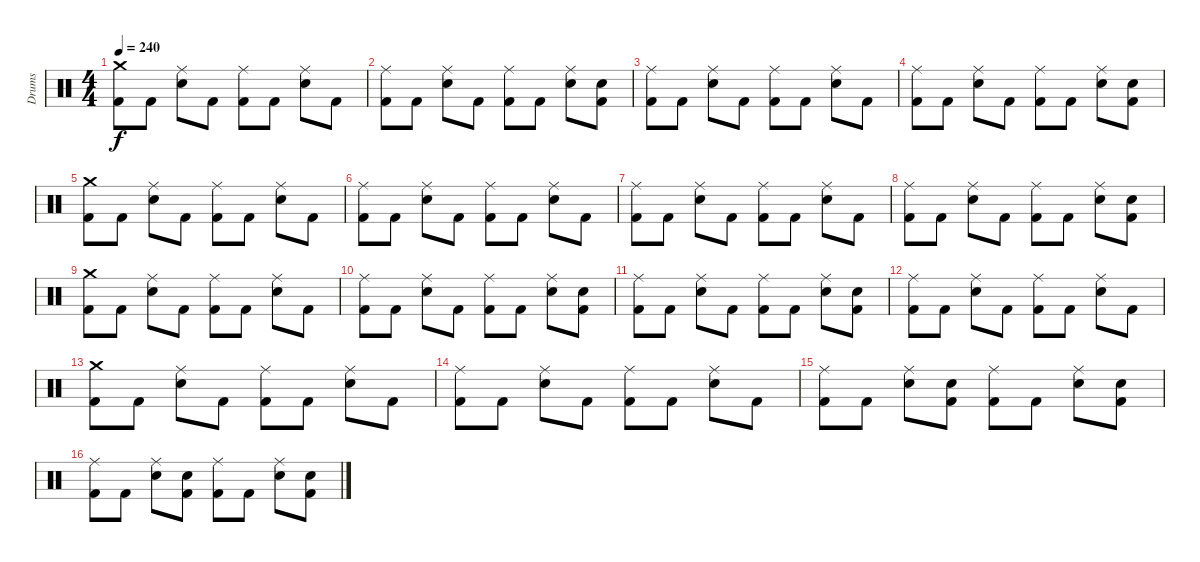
\track ("Drums" "Drums") {instrument percussion}
\staff {score}
\articulation defaults
\ts (4 4)
\tempo 240
\clef neutral
\ks c
("Crash medium (hit)" "Kick (hit) 2").8{dy f} "Kick (hit) 2".8 ("Ride (middle)" "Snare (hit) 2").8 "Kick (hit) 2".8 ("Ride (middle)" "Kick (hit) 2").8 "Kick (hit) 2".8 ("Ride (middle)" "Snare (hit) 2").8 "Kick (hit) 2".8 |
("Ride (middle)" "Kick (hit) 2").8 "Kick (hit) 2".8 ("Ride (middle)" "Snare (hit) 2").8 "Kick (hit) 2".8 ("Ride (middle)" "Kick (hit) 2").8 "Kick (hit) 2".8 ("Ride (middle)" "Snare (hit) 2").8 ("Snare (hit) 2" "Kick (hit) 2").8 |
("Ride (middle)" "Kick (hit) 2").8 "Kick (hit) 2".8 ("Ride (middle)" "Snare (hit) 2").8 "Kick (hit) 2".8 ("Ride (middle)" "Kick (hit) 2").8 "Kick (hit) 2".8 ("Ride (middle)" "Snare (hit) 2").8 "Kick (hit) 2".8 |
("Ride (middle)" "Kick (hit) 2").8 "Kick (hit) 2".8 ("Ride (middle)" "Snare (hit) 2").8 "Kick (hit) 2".8 ("Ride (middle)" "Kick (hit) 2").8 "Kick (hit) 2".8 ("Ride (middle)" "Snare (hit) 2").8 ("Snare (hit) 2" "Kick (hit) 2").8 |
("Crash medium (hit)" "Kick (hit) 2").8 "Kick (hit) 2".8 ("Ride (middle)" "Snare (hit) 2").8 "Kick (hit) 2".8 ("Ride (middle)" "Kick (hit) 2").8 "Kick (hit) 2".8 ("Ride (middle)" "Snare (hit) 2").8 "Kick (hit) 2".8 |
("Ride (middle)" "Kick (hit) 2").8 "Kick (hit) 2".8 ("Ride (middle)" "Snare (hit) 2").8 "Kick (hit) 2".8 ("Ride (middle)" "Kick (hit) 2").8 "Kick (hit) 2".8 ("Ride (middle)" "Snare (hit) 2").8 "Kick (hit) 2".8 |
("Ride (middle)" "Kick (hit) 2").8 "Kick (hit) 2".8 ("Ride (middle)" "Snare (hit) 2").8 "Kick (hit) 2".8 ("Ride (middle)" "Kick (hit) 2").8 "Kick (hit) 2".8 ("Ride (middle)" "Snare (hit) 2").8 "Kick (hit) 2".8 |
("Ride (middle)" "Kick (hit) 2").8 "Kick (hit) 2".8 ("Ride (middle)" "Snare (hit) 2").8 "Kick (hit) 2".8 ("Ride (middle)" "Kick (hit) 2").8 "Kick (hit) 2".8 ("Ride (middle)" "Snare (hit) 2").8 ("Snare (hit) 2" "Kick (hit) 2").8 |
("Crash medium (hit)" "Kick (hit) 2").8 "Kick (hit) 2".8 ("Ride (middle)" "Snare (hit) 2").8 "Kick (hit) 2".8 ("Ride (middle)" "Kick (hit) 2").8 "Kick (hit) 2".8 ("Ride (middle)" "Snare (hit) 2").8 "Kick (hit) 2".8 |
("Ride (middle)" "Kick (hit) 2").8 "Kick (hit) 2".8 ("Ride (middle)" "Snare (hit) 2").8 "Kick (hit) 2".8 ("Ride (middle)" "Kick (hit) 2").8 "Kick (hit) 2".8 ("Ride (middle)" "Snare (hit) 2").8 ("Snare (hit) 2" "Kick (hit) 2").8 |
("Ride (middle)" "Kick (hit) 2").8 "Kick (hit) 2".8 ("Ride (middle)" "Snare (hit) 2").8 "Kick (hit) 2".8 ("Ride (middle)" "Kick (hit) 2").8 "Kick (hit) 2".8 ("Ride (middle)" "Snare (hit) 2").8 ("Snare (hit) 2" "Kick (hit) 2").8 |
("Ride (middle)" "Kick (hit) 2").8 "Kick (hit) 2".8 ("Ride (middle)" "Snare (hit) 2").8 "Kick (hit) 2".8 ("Ride (middle)" "Kick (hit) 2").8 "Kick (hit) 2".8 ("Ride (middle)" "Snare (hit) 2").8 "Kick (hit) 2".8 |
("Crash medium (hit)" "Kick (hit) 2").8 "Kick (hit) 2".8 ("Ride (middle)" "Snare (hit) 2").8 "Kick (hit) 2".8 ("Ride (middle)" "Kick (hit) 2").8 "Kick (hit) 2".8 ("Ride (middle)" "Snare (hit) 2").8 "Kick (hit) 2".8 |
("Ride (middle)" "Kick (hit) 2").8 "Kick (hit) 2".8 ("Ride (middle)" "Snare (hit) 2").8 "Kick (hit) 2".8 ("Ride (middle)" "Kick (hit) 2").8 "Kick (hit) 2".8 ("Ride (middle)" "Snare (hit) 2").8 "Kick (hit) 2".8 |
("Ride (middle)" "Kick (hit) 2").8 "Kick (hit) 2".8 ("Ride (middle)" "Snare (hit) 2").8 ("Snare (hit) 2" "Kick (hit) 2").8 ("Ride (middle)" "Kick (hit) 2").8 "Kick (hit) 2".8 ("Ride (middle)" "Snare (hit) 2").8 ("Snare (hit) 2" "Kick (hit) 2").8 |
("Ride (middle)" "Kick (hit) 2").8 "Kick (hit) 2".8 ("Ride (middle)" "Snare (hit) 2").8 ("Snare (hit) 2" "Kick (hit) 2").8 ("Ride (middle)" "Kick (hit) 2").8 "Kick (hit) 2".8 ("Ride (middle)" "Snare (hit) 2").8 ("Snare (hit) 2" "Kick (hit) 2").8
